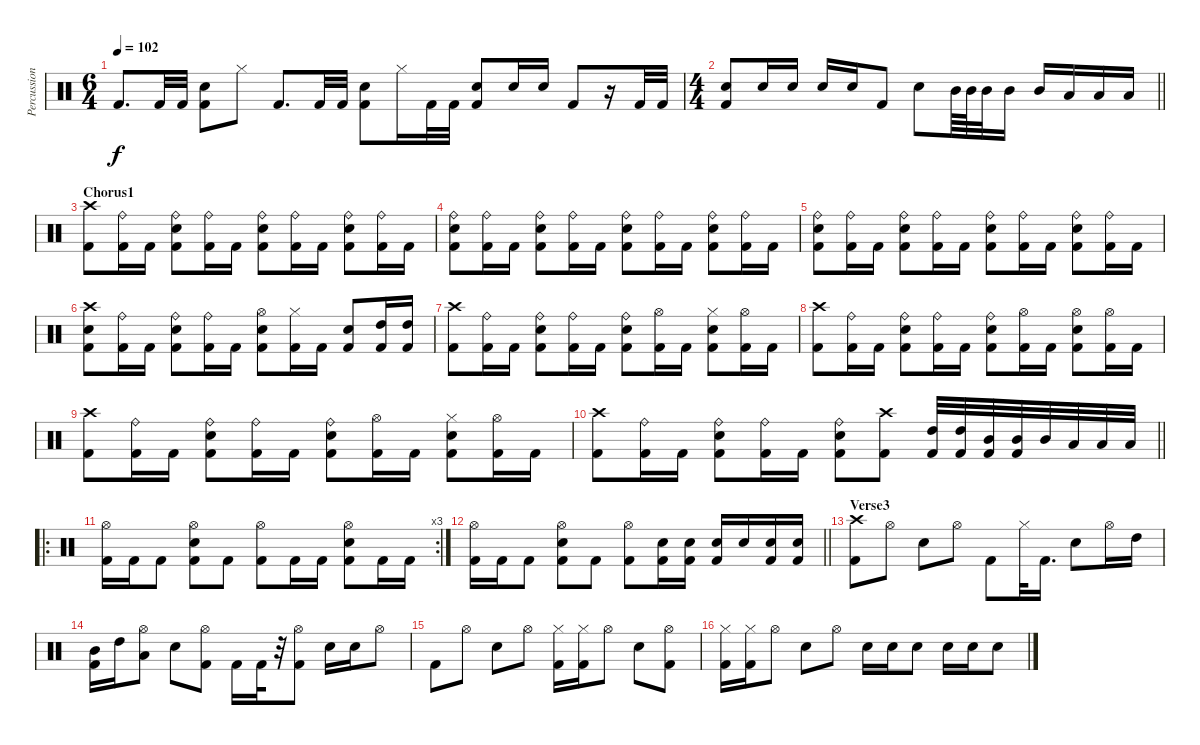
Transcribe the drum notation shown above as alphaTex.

\track ("Percussion" "Percussion") {instrument percussion}
\staff {score}
\articulation defaults
\ts (6 4)
\tempo 102
\clef neutral
\ks c "Kick (hit) 2".8{d dy f} "Kick (hit) 2".32 "Kick (hit) 2".32
("Snare (hit) 2" "Kick (hit) 2").8 "Hi-Hat (closed)".8 "Kick (hit) 2".8{d} "Kick (hit) 2".32 "Kick (hit) 2".32 ("Snare (hit) 2" "Kick (hit) 2").8 "Hi-Hat (closed)".16 "Kick (hit) 2".32 "Kick (hit) 2".32 ("Snare (hit) 2" "Kick (hit) 2").8 "Snare (hit) 2".16 "Snare (hit) 2".16 "Kick (hit) 2".8 r.16 "Kick (hit) 2".32 "Kick (hit) 2".32 |
\ts (4 4)
\barLineRight lightlight
("Snare (hit) 2" "Kick (hit) 2").8 "Snare (hit) 2".16 "Snare (hit) 2".16 "Snare (hit) 2".16 "Snare (hit) 2".16 "Kick (hit) 2".8 "Snare (hit) 2".8 "Mid Tom (hit)".64 "Mid Tom (hit)".64 "Mid Tom (hit)".32 "Mid Tom (hit)".16 "Mid Tom (hit)".16 "Low Tom (hit)".16 "Low Tom (hit)".16 "Low Tom (hit)".16 |
\section ("" "Chorus1")
("Crash high (hit)" "Kick (hit) 2").8 ("Ride (bell)" "Kick (hit) 2").16 "Kick (hit) 2".16 ("Ride (bell)" "Snare (hit) 2" "Kick (hit) 2").8 ("Ride (bell)" "Kick (hit) 2").16 "Kick (hit) 2".16 ("Ride (bell)" "Snare (hit) 2" "Kick (hit) 2").8 ("Ride (bell)" "Kick (hit) 2").16 "Kick (hit) 2".16 ("Ride (bell)" "Snare (hit) 2" "Kick (hit) 2").8 ("Ride (bell)" "Kick (hit) 2").16 "Kick (hit) 2".16 |
("Ride (bell)" "Snare (hit) 2" "Kick (hit) 2").8 ("Ride (bell)" "Kick (hit) 2").16 "Kick (hit) 2".16 ("Ride (bell)" "Snare (hit) 2" "Kick (hit) 2").8 ("Ride (bell)" "Kick (hit) 2").16 "Kick (hit) 2".16 ("Ride (bell)" "Snare (hit) 2" "Kick (hit) 2").8 ("Ride (bell)" "Kick (hit) 2").16 "Kick (hit) 2".16 ("Ride (bell)" "Snare (hit) 2" "Kick (hit) 2").8 ("Ride (bell)" "Kick (hit) 2").16 "Kick (hit) 2".16 |
("Ride (bell)" "Snare (hit) 2" "Kick (hit) 2").8 ("Ride (bell)" "Kick (hit) 2").16 "Kick (hit) 2".16 ("Ride (bell)" "Snare (hit) 2" "Kick (hit) 2").8 ("Ride (bell)" "Kick (hit) 2").16 "Kick (hit) 2".16 ("Ride (bell)" "Snare (hit) 2" "Kick (hit) 2").8 ("Ride (bell)" "Kick (hit) 2").16 "Kick (hit) 2".16 ("Ride (bell)" "Snare (hit) 2" "Kick (hit) 2").8 ("Ride (bell)" "Kick (hit) 2").16 "Kick (hit) 2".16 |
("Crash high (hit)" "Snare (hit) 2" "Kick (hit) 2").8 ("Ride (bell)" "Kick (hit) 2").16 "Kick (hit) 2".16 ("Ride (bell)" "Snare (hit) 2" "Kick (hit) 2").8 ("Ride (bell)" "Kick (hit) 2").16 "Kick (hit) 2".16 ("Hi-Hat (open)" "Snare (hit) 2" "Kick (hit) 2").8 ("Hi-Hat (closed)" "Kick (hit) 2").16 "Kick (hit) 2".16 ("Snare (hit) 2" "Kick (hit) 2").8 ("High Tom (hit)" "Kick (hit) 2").16 ("High Tom (hit)" "Kick (hit) 2").16 |
("Crash high (hit)" "Kick (hit) 2").8 ("Ride (bell)" "Kick (hit) 2").16 "Kick (hit) 2".16 ("Ride (bell)" "Snare (hit) 2" "Kick (hit) 2").8 ("Ride (bell)" "Kick (hit) 2").16 "Kick (hit) 2".16 ("Ride (bell)" "Snare (hit) 2" "Kick (hit) 2").8 ("Hi-Hat (open)" "Kick (hit) 2").16 "Kick (hit) 2".16 ("Hi-Hat (closed)" "Snare (hit) 2" "Kick (hit) 2").8 ("Hi-Hat (open)" "Kick (hit) 2").16 "Kick (hit) 2".16 |
("Crash high (hit)" "Kick (hit) 2").8 ("Ride (bell)" "Kick (hit) 2").16 "Kick (hit) 2".16 ("Ride (bell)" "Snare (hit) 2" "Kick (hit) 2").8 ("Ride (bell)" "Kick (hit) 2").16 "Kick (hit) 2".16 ("Ride (bell)" "Snare (hit) 2" "Kick (hit) 2").8 ("Hi-Hat (open)" "Kick (hit) 2").16 "Kick (hit) 2".16 ("Hi-Hat (open)" "Snare (hit) 2" "Kick (hit) 2").8 ("Hi-Hat (open)" "Kick (hit) 2").16 "Kick (hit) 2".16 |
("Crash high (hit)" "Kick (hit) 2").8 ("Ride (bell)" "Kick (hit) 2").16 "Kick (hit) 2".16 ("Ride (bell)" "Snare (hit) 2" "Kick (hit) 2").8 ("Ride (bell)" "Kick (hit) 2").16 "Kick (hit) 2".16 ("Ride (bell)" "Snare (hit) 2" "Kick (hit) 2").8 ("Hi-Hat (open)" "Kick (hit) 2").16 "Kick (hit) 2".16 ("Hi-Hat (closed)" "Snare (hit) 2" "Kick (hit) 2").8 ("Hi-Hat (open)" "Kick (hit) 2").16 "Kick (hit) 2".16 |
\barLineRight lightlight
("Crash high (hit)" "Kick (hit) 2").8 ("Ride (bell)" "Kick (hit) 2").16 "Kick (hit) 2".16 ("Ride (bell)" "Snare (hit) 2" "Kick (hit) 2").8 ("Ride (bell)" "Kick (hit) 2").16 "Kick (hit) 2".16 ("Ride (bell)" "Snare (hit) 2" "Kick (hit) 2").8 ("Crash high (hit)" "Kick (hit) 2").8 ("High Tom (hit)" "Kick (hit) 2").32 ("High Tom (hit)" "Kick (hit) 2").32 ("Mid Tom (hit)" "Kick (hit) 2").32 ("Mid Tom (hit)" "Kick (hit) 2").32 "Mid Tom (hit)".32 "Low Tom (hit)".32 "Low Tom (hit)".32 "Low Tom (hit)".32 |
\ro
\rc 3
("Hi-Hat (open)" "Kick (hit) 2").16 "Kick (hit) 2".16 "Kick (hit) 2".8 ("Hi-Hat (open)" "Snare (hit) 2" "Kick (hit) 2").8 "Kick (hit) 2".8 ("Hi-Hat (open)" "Kick (hit) 2").8 "Kick (hit) 2".16 "Kick (hit) 2".16 ("Hi-Hat (open)" "Snare (hit) 2" "Kick (hit) 2").8 "Kick (hit) 2".16 "Kick (hit) 2".16 |
\barLineRight lightlight
("Hi-Hat (open)" "Kick (hit) 2").16 "Kick (hit) 2".16 "Kick (hit) 2".8 ("Hi-Hat (open)" "Snare (hit) 2" "Kick (hit) 2").8 "Kick (hit) 2".8 ("Hi-Hat (open)" "Kick (hit) 2").8 ("Snare (hit) 2" "Kick (hit) 2").16 ("Snare (hit) 2" "Kick (hit) 2").16 ("Snare (hit) 2" "Kick (hit) 2").16 "Snare (hit) 2".16 ("Snare (hit) 2" "Kick (hit) 2").16 ("Snare (hit) 2" "Kick (hit) 2").16 |
\section ("" "Verse3")
("Crash high (hit)" "Kick (hit) 2").8 "Hi-Hat (open)".8 "Snare (hit) 2".8 "Hi-Hat (open)".8 "Kick (hit) 2".8 "Hi-Hat (closed)".32 "Kick (hit) 2".16{d} "Snare (hit) 2".8 "Hi-Hat (open)".16 "High Tom (hit)".16 |
("Mid Tom (hit)" "Kick (hit) 2").16 "High Tom (hit)".16 ("Hi-Hat (open)" "Low Tom (hit)").8 "Snare (hit) 2".8 ("Hi-Hat (open)" "Kick (hit) 2").8 "Kick (hit) 2".16 "Kick (hit) 2".32 r.32 ("Hi-Hat (open)" "Kick (hit) 2").8 "Snare (hit) 2".16 "Snare (hit) 2".16 "Hi-Hat (open)".8 |
"Kick (hit) 2".8 "Hi-Hat (open)".8 "Snare (hit) 2".8 "Hi-Hat (open)".8 ("Hi-Hat (closed)" "Kick (hit) 2").16 ("Hi-Hat (closed)" "Kick (hit) 2").16 "Hi-Hat (open)".8 "Snare (hit) 2".8 ("Hi-Hat (open)" "Kick (hit) 2").8 |
("Hi-Hat (closed)" "Kick (hit) 2").16 ("Hi-Hat (closed)" "Kick (hit) 2").16 "Hi-Hat (open)".8 "Snare (hit) 2".8 "Hi-Hat (open)".8 "Snare (hit) 2".16 "Snare (hit) 2".16 "Snare (hit) 2".8 "Snare (hit) 2".16 "Snare (hit) 2".16 "Snare (hit) 2".8
